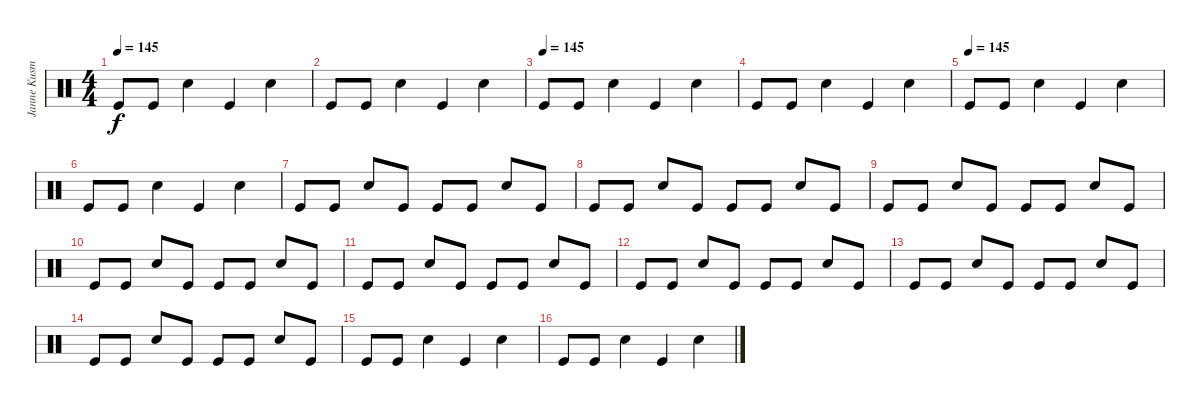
\track ("Janne Kusmin " "Janne Kusm") {instrument percussion}
\staff {score}
\articulation defaults
\ts (4 4)
\tempo 145
\clef neutral
\ks c "Kick (hit)".8{dy f} "Kick (hit)".8 "Snare (hit) 2".4 "Kick (hit)".4 "Snare (hit) 2".4
|
"Kick (hit)".8 "Kick (hit)".8 "Snare (hit) 2".4 "Kick (hit)".4 "Snare (hit) 2".4 |
\tempo (145)
"Kick (hit)".8 "Kick (hit)".8 "Snare (hit) 2".4 "Kick (hit)".4 "Snare (hit) 2".4 |
"Kick (hit)".8 "Kick (hit)".8 "Snare (hit) 2".4 "Kick (hit)".4 "Snare (hit) 2".4 |
\tempo (145)
"Kick (hit)".8 "Kick (hit)".8 "Snare (hit) 2".4 "Kick (hit)".4 "Snare (hit) 2".4 |
"Kick (hit)".8 "Kick (hit)".8 "Snare (hit) 2".4 "Kick (hit)".4 "Snare (hit) 2".4 |
"Kick (hit)".8 "Kick (hit)".8 "Snare (hit) 2".8 "Kick (hit)".8 "Kick (hit)".8 "Kick (hit)".8 "Snare (hit) 2".8 "Kick (hit)".8 |
"Kick (hit)".8 "Kick (hit)".8 "Snare (hit) 2".8 "Kick (hit)".8 "Kick (hit)".8 "Kick (hit)".8 "Snare (hit) 2".8 "Kick (hit)".8 |
"Kick (hit)".8 "Kick (hit)".8 "Snare (hit) 2".8 "Kick (hit)".8 "Kick (hit)".8 "Kick (hit)".8 "Snare (hit) 2".8 "Kick (hit)".8 |
"Kick (hit)".8 "Kick (hit)".8 "Snare (hit) 2".8 "Kick (hit)".8 "Kick (hit)".8 "Kick (hit)".8 "Snare (hit) 2".8 "Kick (hit)".8 |
"Kick (hit)".8 "Kick (hit)".8 "Snare (hit) 2".8 "Kick (hit)".8 "Kick (hit)".8 "Kick (hit)".8 "Snare (hit) 2".8 "Kick (hit)".8 |
"Kick (hit)".8 "Kick (hit)".8 "Snare (hit) 2".8 "Kick (hit)".8 "Kick (hit)".8 "Kick (hit)".8 "Snare (hit) 2".8 "Kick (hit)".8 |
"Kick (hit)".8 "Kick (hit)".8 "Snare (hit) 2".8 "Kick (hit)".8 "Kick (hit)".8 "Kick (hit)".8 "Snare (hit) 2".8 "Kick (hit)".8 |
"Kick (hit)".8 "Kick (hit)".8 "Snare (hit) 2".8 "Kick (hit)".8 "Kick (hit)".8 "Kick (hit)".8 "Snare (hit) 2".8 "Kick (hit)".8 |
"Kick (hit)".8 "Kick (hit)".8 "Snare (hit) 2".4 "Kick (hit)".4 "Snare (hit) 2".4 |
"Kick (hit)".8 "Kick (hit)".8 "Snare (hit) 2".4 "Kick (hit)".4 "Snare (hit) 2".4
